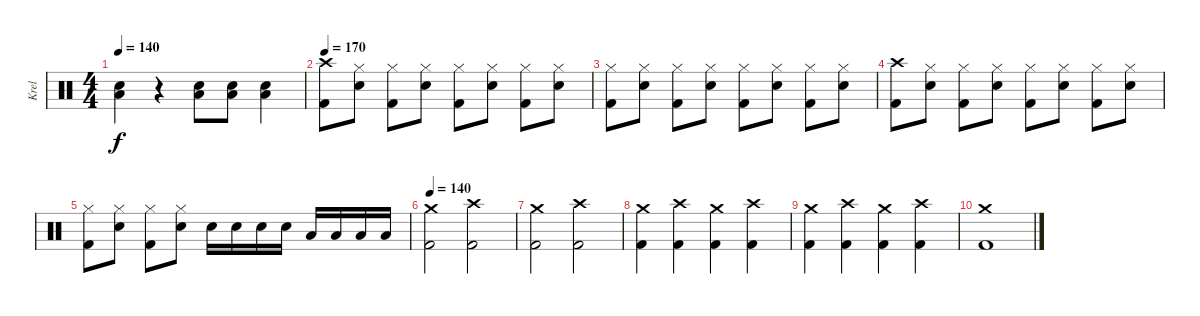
\track ("Krel" "Krel") {instrument percussion}
\staff {score}
\articulation defaults
\ts (4 4)
\tempo 140
\clef neutral
\ks c
("Low Tom (hit)" "Snare (hit) 2").4{dy f} r.4 ("Low Tom (hit)" "Snare (hit) 2").8 ("Low Tom (hit)" "Snare (hit) 2").8 ("Low Tom (hit)" "Snare (hit) 2").4 |
\tempo 170
("Crash high (hit)" "Kick (hit) 2").8 ("Hi-Hat (closed)" "Snare (hit) 2").8 ("Hi-Hat (closed)" "Kick (hit) 2").8 ("Hi-Hat (closed)" "Snare (hit) 2").8 ("Hi-Hat (closed)" "Kick (hit) 2").8 ("Hi-Hat (closed)" "Snare (hit) 2").8 ("Hi-Hat (closed)" "Kick (hit) 2").8 ("Hi-Hat (closed)" "Snare (hit) 2").8 |
("Hi-Hat (closed)" "Kick (hit) 2").8 ("Hi-Hat (closed)" "Snare (hit) 2").8 ("Hi-Hat (closed)" "Kick (hit) 2").8 ("Hi-Hat (closed)" "Snare (hit) 2").8 ("Hi-Hat (closed)" "Kick (hit) 2").8 ("Hi-Hat (closed)" "Snare (hit) 2").8 ("Hi-Hat (closed)" "Kick (hit) 2").8 ("Hi-Hat (closed)" "Snare (hit) 2").8 |
("Crash high (hit)" "Kick (hit) 2").8 ("Hi-Hat (closed)" "Snare (hit) 2").8 ("Hi-Hat (closed)" "Kick (hit) 2").8 ("Hi-Hat (closed)" "Snare (hit) 2").8 ("Hi-Hat (closed)" "Kick (hit) 2").8 ("Hi-Hat (closed)" "Snare (hit) 2").8 ("Hi-Hat (closed)" "Kick (hit) 2").8 ("Hi-Hat (closed)" "Snare (hit) 2").8 |
("Hi-Hat (closed)" "Kick (hit) 2").8 ("Hi-Hat (closed)" "Snare (hit) 2").8 ("Hi-Hat (closed)" "Kick (hit) 2").8 ("Hi-Hat (closed)" "Snare (hit) 2").8 "Snare (hit) 2".16 "Snare (hit) 2".16 "Snare (hit) 2".16 "Snare (hit) 2".16 "Low Tom (hit)".16 "Low Tom (hit)".16 "Low Tom (hit)".16 "Low Tom (hit)".16 |
\tempo 140
("Crash medium (hit)" "Kick (hit) 2").2 ("Crash high (hit)" "Kick (hit) 2").2 |
("Crash medium (hit)" "Kick (hit) 2").2 ("Crash high (hit)" "Kick (hit) 2").2 |
("Crash medium (hit)" "Kick (hit) 2").4 ("Crash high (hit)" "Kick (hit) 2").4 ("Crash medium (hit)" "Kick (hit) 2").4 ("Crash high (hit)" "Kick (hit) 2").4 |
("Crash medium (hit)" "Kick (hit) 2").4 ("Crash high (hit)" "Kick (hit) 2").4 ("Crash medium (hit)" "Kick (hit) 2").4 ("Crash high (hit)" "Kick (hit) 2").4 |
("Crash medium (hit)" "Kick (hit) 2").1
